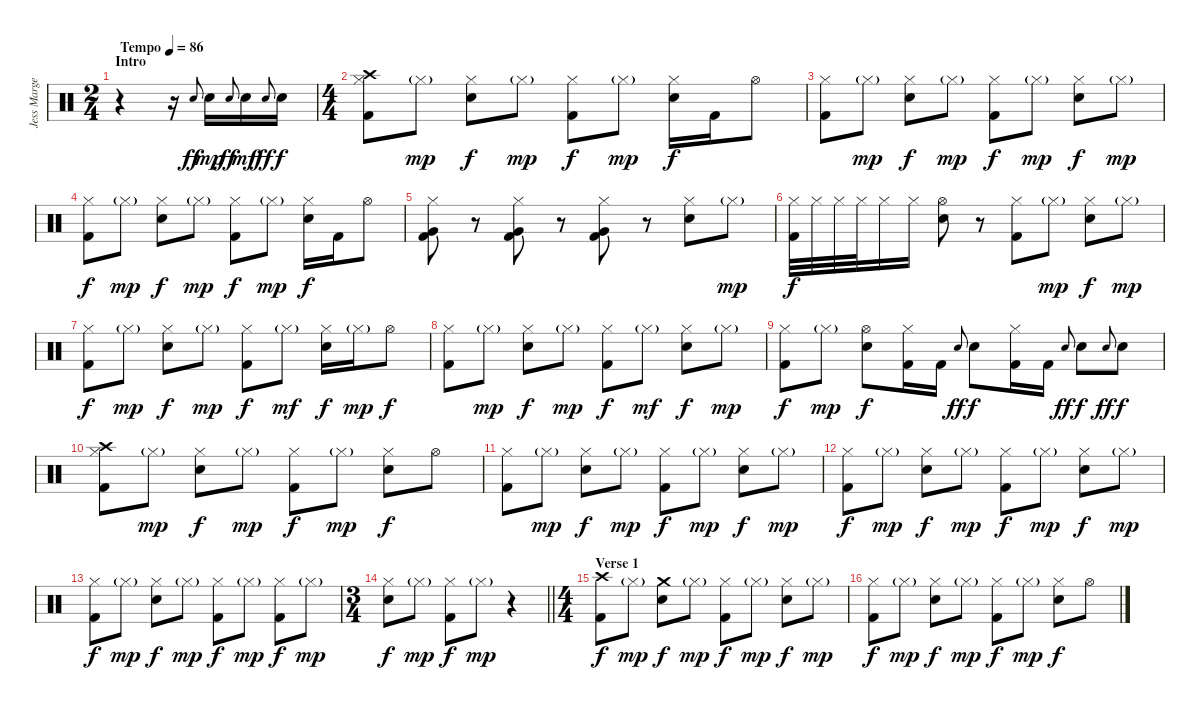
\track ("Jess Margera (Drums)" "Jess Marge") {instrument percussion}
\staff {score}
\articulation defaults
\ts (2 4)
\section ("" "Intro")
\tempo (86 "Tempo")
\clef neutral
\ks c
r.4{dy ff} r.16 "Snare (hit) 2".8{gr onbeat} "Snare (hit) 2".16{dy mp balance 16} "Snare (hit) 2".8{gr onbeat dy ff} "Snare (hit) 2".16{dy mf balance 0} "Snare (hit) 2".8{gr onbeat dy ff} "Snare (hit) 2".16{dy f balance 16} |
\ts (4 4)
("Crash high (hit)" "Hi-Hat (closed)" "Kick (hit) 2").8{balance 8} "Hi-Hat (closed)"{g}.8{dy mp} ("Hi-Hat (closed)" "Snare (hit) 2").8{dy f} "Hi-Hat (closed)"{g}.8{dy mp} ("Hi-Hat (closed)" "Kick (hit) 2").8{dy f} "Hi-Hat (closed)"{g}.8{dy mp} ("Hi-Hat (closed)" "Snare (hit) 2").16{dy f} "Kick (hit) 2".16 "Hi-Hat (open)".8 |
("Hi-Hat (closed)" "Kick (hit) 2").8 "Hi-Hat (closed)"{g}.8{dy mp} ("Hi-Hat (closed)" "Snare (hit) 2").8{dy f} "Hi-Hat (closed)"{g}.8{dy mp} ("Hi-Hat (closed)" "Kick (hit) 2").8{dy f} "Hi-Hat (closed)"{g}.8{dy mp} ("Hi-Hat (closed)" "Snare (hit) 2").8{dy f} "Hi-Hat (closed)"{g}.8{dy mp} |
("Hi-Hat (closed)" "Kick (hit) 2").8{dy f} "Hi-Hat (closed)"{g}.8{dy mp} ("Hi-Hat (closed)" "Snare (hit) 2").8{dy f} "Hi-Hat (closed)"{g}.8{dy mp} ("Hi-Hat (closed)" "Kick (hit) 2").8{dy f} "Hi-Hat (closed)"{g}.8{dy mp} ("Hi-Hat (closed)" "Snare (hit) 2").16{dy f} "Kick (hit) 2".16 "Hi-Hat (open)".8 |
("Hi-Hat (closed)" "Very Low Tom (hit)" "Kick (hit) 2").8 r.8 ("Hi-Hat (closed)" "Very Low Tom (hit)" "Kick (hit) 2").8 r.8 ("Hi-Hat (closed)" "Very Low Tom (hit)" "Kick (hit) 2").8 r.8 ("Hi-Hat (closed)" "Snare (hit) 2").8 "Hi-Hat (closed)"{g}.8{dy mp} |
("Hi-Hat (closed)" "Kick (hit) 2").32{dy f} "Hi-Hat (closed)".32 "Hi-Hat (closed)".32 "Hi-Hat (closed)".32 "Hi-Hat (closed)".16 "Hi-Hat (closed)".16 ("Hi-Hat (open)" "Snare (hit) 2").8 r.8 ("Hi-Hat (closed)" "Kick (hit) 2").8 "Hi-Hat (closed)"{g}.8{dy mp} ("Hi-Hat (closed)" "Snare (hit) 2").8{dy f} "Hi-Hat (closed)"{g}.8{dy mp} |
("Hi-Hat (closed)" "Kick (hit) 2").8{dy f} "Hi-Hat (closed)"{g}.8{dy mp} ("Hi-Hat (closed)" "Snare (hit) 2").8{dy f} "Hi-Hat (closed)"{g}.8{dy mp} ("Hi-Hat (closed)" "Kick (hit) 2").8{dy f} "Hi-Hat (closed)"{g}.8{dy mf} ("Hi-Hat (closed)" "Snare (hit) 2").16{dy f} "Hi-Hat (closed)"{g}.16{dy mp} "Hi-Hat (open)".8{dy f} |
("Hi-Hat (closed)" "Kick (hit) 2").8 "Hi-Hat (closed)"{g}.8{dy mp} ("Hi-Hat (closed)" "Snare (hit) 2").8{dy f} "Hi-Hat (closed)"{g}.8{dy mp} ("Hi-Hat (closed)" "Kick (hit) 2").8{dy f} "Hi-Hat (closed)"{g}.8{dy mf} ("Hi-Hat (closed)" "Snare (hit) 2").8{dy f} "Hi-Hat (closed)"{g}.8{dy mp} |
("Hi-Hat (closed)" "Kick (hit) 2").8{dy f} "Hi-Hat (closed)"{g}.8{dy mp} ("Hi-Hat (open)" "Snare (hit) 2").8{dy f} ("Hi-Hat (closed)" "Kick (hit) 2").16 "Kick (hit) 2".16 "Snare (hit) 2".8{gr onbeat dy ff} "Snare (hit) 2".8{dy f} ("Hi-Hat (closed)" "Kick (hit) 2").16 "Kick (hit) 2".16 "Snare (hit) 2".8{gr onbeat dy ff} "Snare (hit) 2".8{dy f} "Snare (hit) 2".8{gr onbeat dy ff} "Snare (hit) 2".8{dy f} |
("Crash high (hit)" "Hi-Hat (closed)" "Kick (hit) 2").8 "Hi-Hat (closed)"{g}.8{dy mp} ("Hi-Hat (closed)" "Snare (hit) 2").8{dy f} "Hi-Hat (closed)"{g}.8{dy mp} ("Hi-Hat (closed)" "Kick (hit) 2").8{dy f} "Hi-Hat (closed)"{g}.8{dy mp} ("Hi-Hat (closed)" "Snare (hit) 2").8{dy f} "Hi-Hat (open)".8 |
("Hi-Hat (closed)" "Kick (hit) 2").8 "Hi-Hat (closed)"{g}.8{dy mp} ("Hi-Hat (closed)" "Snare (hit) 2").8{dy f} "Hi-Hat (closed)"{g}.8{dy mp} ("Hi-Hat (closed)" "Kick (hit) 2").8{dy f} "Hi-Hat (closed)"{g}.8{dy mp} ("Hi-Hat (closed)" "Snare (hit) 2").8{dy f} "Hi-Hat (closed)"{g}.8{dy mp} |
("Hi-Hat (closed)" "Kick (hit) 2").8{dy f} "Hi-Hat (closed)"{g}.8{dy mp} ("Hi-Hat (closed)" "Snare (hit) 2").8{dy f} "Hi-Hat (closed)"{g}.8{dy mp} ("Hi-Hat (closed)" "Kick (hit) 2").8{dy f} "Hi-Hat (closed)"{g}.8{dy mp} ("Hi-Hat (closed)" "Snare (hit) 2").8{dy f} "Hi-Hat (closed)"{g}.8{dy mp} |
("Hi-Hat (closed)" "Kick (hit) 2").8{dy f} "Hi-Hat (closed)"{g}.8{dy mp} ("Hi-Hat (closed)" "Snare (hit) 2").8{dy f} "Hi-Hat (closed)"{g}.8{dy mp} ("Hi-Hat (closed)" "Kick (hit) 2").8{dy f} "Hi-Hat (closed)"{g}.8{dy mp} ("Hi-Hat (closed)" "Kick (hit) 2").8{dy f} "Hi-Hat (closed)"{g}.8{dy mp} |
\ts (3 4)
\barLineRight lightlight
("Hi-Hat (closed)" "Snare (hit) 2").8{dy f} "Hi-Hat (closed)"{g}.8{dy mp} ("Hi-Hat (closed)" "Kick (hit) 2").8{dy f} "Hi-Hat (closed)"{g}.8{dy mp} r.4 |
\ts (4 4)
\section ("" "Verse 1")
("Crash high (hit)" "Kick (hit) 2").8{dy f} "Hi-Hat (closed)"{g}.8{dy mp} ("Crash medium (hit)" "Snare (hit) 2").8{dy f} "Hi-Hat (closed)"{g}.8{dy mp} ("Hi-Hat (closed)" "Kick (hit) 2").8{dy f} "Hi-Hat (closed)"{g}.8{dy mp} ("Hi-Hat (closed)" "Snare (hit) 2").8{dy f} "Hi-Hat (closed)"{g}.8{dy mp} |
("Hi-Hat (closed)" "Kick (hit) 2").8{dy f} "Hi-Hat (closed)"{g}.8{dy mp} ("Hi-Hat (closed)" "Snare (hit) 2").8{dy f} "Hi-Hat (closed)"{g}.8{dy mp} ("Hi-Hat (closed)" "Kick (hit) 2").8{dy f} "Hi-Hat (closed)"{g}.8{dy mp} ("Hi-Hat (closed)" "Snare (hit) 2").8{dy f} "Hi-Hat (open)".8
